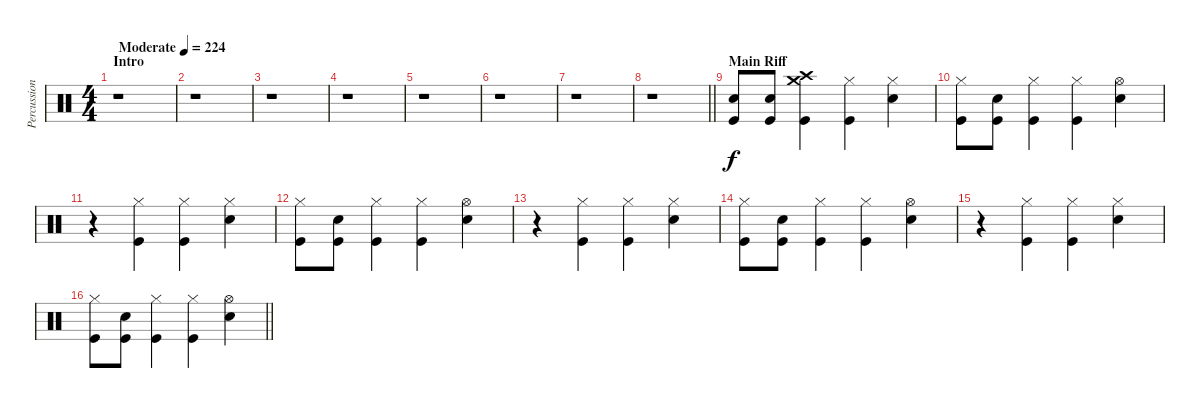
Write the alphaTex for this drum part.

\track ("Percussion" "Percussion") {instrument percussion}
\staff {score}
\articulation defaults
\ts (4 4)
\section ("" "Intro")
\tempo (224 "Moderate")
\clef neutral
\ks c
r.1{dy f} |
r.1 |
r.1 |
r.1 |
r.1 |
r.1 |
r.1 |
\barLineRight lightlight
r.1 |
\section ("" "Main Riff")
("Electric Snare (hit)" "Kick (hit)").8 ("Electric Snare (hit)" "Kick (hit)").8 ("Crash high (hit)" "Crash medium (hit)" "Kick (hit)").4 ("Hi-Hat (closed)" "Kick (hit)").4 ("Hi-Hat (closed)" "Electric Snare (hit)").4 |
("Hi-Hat (closed)" "Kick (hit)").8 ("Electric Snare (hit)" "Kick (hit)").8 ("Hi-Hat (closed)" "Kick (hit)").4 ("Hi-Hat (closed)" "Kick (hit)").4 ("Hi-Hat (open)" "Electric Snare (hit)").4 |
r.4 ("Hi-Hat (closed)" "Kick (hit)").4 ("Hi-Hat (closed)" "Kick (hit)").4 ("Hi-Hat (closed)" "Electric Snare (hit)").4 |
("Hi-Hat (closed)" "Kick (hit)").8 ("Electric Snare (hit)" "Kick (hit)").8 ("Hi-Hat (closed)" "Kick (hit)").4 ("Hi-Hat (closed)" "Kick (hit)").4 ("Hi-Hat (open)" "Electric Snare (hit)").4 |
r.4 ("Hi-Hat (closed)" "Kick (hit)").4 ("Hi-Hat (closed)" "Kick (hit)").4 ("Hi-Hat (closed)" "Electric Snare (hit)").4 |
("Hi-Hat (closed)" "Kick (hit)").8 ("Electric Snare (hit)" "Kick (hit)").8 ("Hi-Hat (closed)" "Kick (hit)").4 ("Hi-Hat (closed)" "Kick (hit)").4 ("Hi-Hat (open)" "Electric Snare (hit)").4 |
r.4 ("Hi-Hat (closed)" "Kick (hit)").4 ("Hi-Hat (closed)" "Kick (hit)").4 ("Hi-Hat (closed)" "Electric Snare (hit)").4 |
\barLineRight lightlight
("Hi-Hat (closed)" "Kick (hit)").8 ("Electric Snare (hit)" "Kick (hit)").8 ("Hi-Hat (closed)" "Kick (hit)").4 ("Hi-Hat (closed)" "Kick (hit)").4 ("Hi-Hat (open)" "Electric Snare (hit)").4
